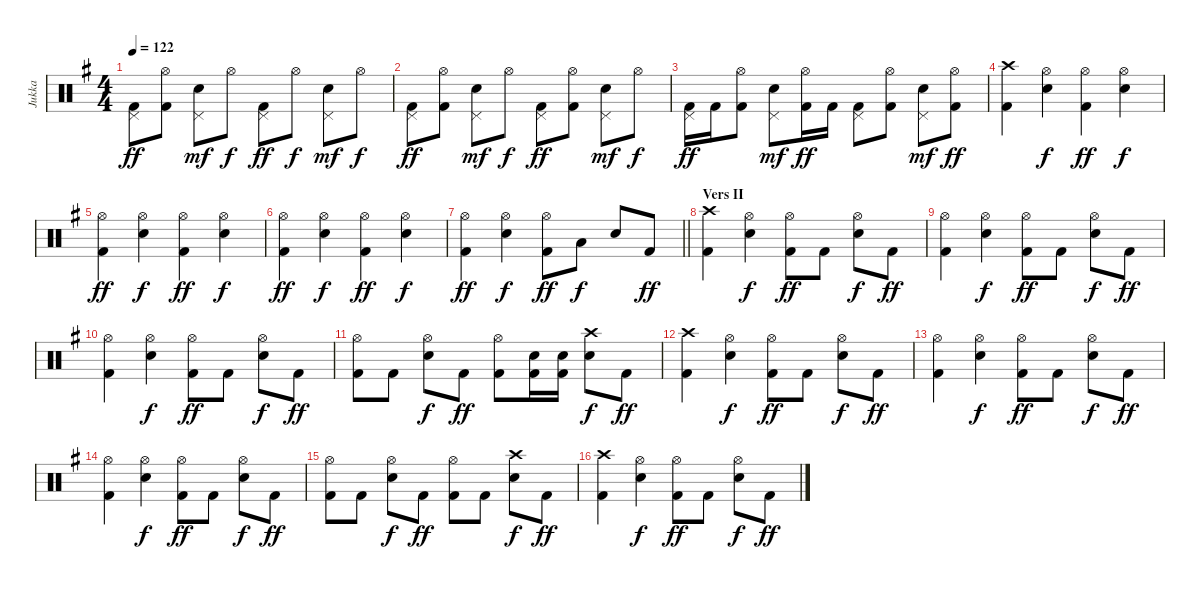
\track ("Jukka" "Jukka") {instrument percussion}
\staff {score}
\articulation defaults
\ts (4 4)
\tempo 122
\clef neutral
\ks g
("Pedal Hi-Hat (hit)" "Kick (hit) 2").8{dy ff} ("Hi-Hat (open)" "Kick (hit) 2").8 ("Pedal Hi-Hat (hit)" "Electric Snare (hit)").8{dy mf} "Hi-Hat (open)".8{dy f} ("Pedal Hi-Hat (hit)" "Kick (hit) 2").8{dy ff} "Hi-Hat (open)".8{dy f} ("Pedal Hi-Hat (hit)" "Electric Snare (hit)").8{dy mf} "Hi-Hat (open)".8{dy f} |
("Pedal Hi-Hat (hit)" "Kick (hit) 2").8{dy ff} ("Hi-Hat (open)" "Kick (hit) 2").8 ("Pedal Hi-Hat (hit)" "Electric Snare (hit)").8{dy mf} "Hi-Hat (open)".8{dy f} ("Pedal Hi-Hat (hit)" "Kick (hit) 2").8{dy ff} ("Hi-Hat (open)" "Kick (hit) 2").8 ("Pedal Hi-Hat (hit)" "Electric Snare (hit)").8{dy mf} "Hi-Hat (open)".8{dy f} |
("Pedal Hi-Hat (hit)" "Kick (hit) 2").16{dy ff} "Kick (hit) 2".16 ("Hi-Hat (open)" "Kick (hit) 2").8 ("Pedal Hi-Hat (hit)" "Electric Snare (hit)").8{dy mf} ("Hi-Hat (open)" "Kick (hit) 2").16{dy ff} "Kick (hit) 2".16 ("Pedal Hi-Hat (hit)" "Kick (hit) 2").8 ("Hi-Hat (open)" "Kick (hit) 2").8 ("Pedal Hi-Hat (hit)" "Electric Snare (hit)").8{dy mf} ("Hi-Hat (open)" "Kick (hit) 2").8{dy ff} |
("Crash high (hit)" "Kick (hit) 2").4 ("Hi-Hat (open)" "Electric Snare (hit)").4{dy f} ("Hi-Hat (open)" "Kick (hit) 2").4{dy ff} ("Hi-Hat (open)" "Electric Snare (hit)").4{dy f} |
("Hi-Hat (open)" "Kick (hit) 2").4{dy ff} ("Hi-Hat (open)" "Electric Snare (hit)").4{dy f} ("Hi-Hat (open)" "Kick (hit) 2").4{dy ff} ("Hi-Hat (open)" "Electric Snare (hit)").4{dy f} |
("Hi-Hat (open)" "Kick (hit) 2").4{dy ff} ("Hi-Hat (open)" "Electric Snare (hit)").4{dy f} ("Hi-Hat (open)" "Kick (hit) 2").4{dy ff} ("Hi-Hat (open)" "Electric Snare (hit)").4{dy f} |
\barLineRight lightlight
("Hi-Hat (open)" "Kick (hit) 2").4{dy ff} ("Hi-Hat (open)" "Electric Snare (hit)").4{dy f} ("Hi-Hat (open)" "Kick (hit) 2").8{dy ff} "Low Floor Tom (hit)".8{dy f} "Electric Snare (hit)".8 "Kick (hit) 2".8{dy ff} |
\section ("" "Vers II")
("Crash high (hit)" "Kick (hit) 2").4 ("Hi-Hat (open)" "Electric Snare (hit)").4{dy f} ("Hi-Hat (open)" "Kick (hit) 2").8{dy ff} "Kick (hit) 2".8 ("Hi-Hat (open)" "Electric Snare (hit)").8{dy f} "Kick (hit) 2".8{dy ff} |
("Hi-Hat (open)" "Kick (hit) 2").4 ("Hi-Hat (open)" "Electric Snare (hit)").4{dy f} ("Hi-Hat (open)" "Kick (hit) 2").8{dy ff} "Kick (hit) 2".8 ("Hi-Hat (open)" "Electric Snare (hit)").8{dy f} "Kick (hit) 2".8{dy ff} |
("Hi-Hat (open)" "Kick (hit) 2").4 ("Hi-Hat (open)" "Electric Snare (hit)").4{dy f} ("Hi-Hat (open)" "Kick (hit) 2").8{dy ff} "Kick (hit) 2".8 ("Hi-Hat (open)" "Electric Snare (hit)").8{dy f} "Kick (hit) 2".8{dy ff} |
("Hi-Hat (open)" "Kick (hit) 2").8 "Kick (hit) 2".8 ("Hi-Hat (open)" "Electric Snare (hit)").8{dy f} "Kick (hit) 2".8{dy ff} ("Hi-Hat (open)" "Kick (hit) 2").8 ("Electric Snare (hit)" "Kick (hit) 2").16 ("Electric Snare (hit)" "Kick (hit) 2").16 ("Crash high (hit)" "Electric Snare (hit)").8{dy f} "Kick (hit) 2".8{dy ff} |
("Crash high (hit)" "Kick (hit) 2").4 ("Hi-Hat (open)" "Electric Snare (hit)").4{dy f} ("Hi-Hat (open)" "Kick (hit) 2").8{dy ff} "Kick (hit) 2".8 ("Hi-Hat (open)" "Electric Snare (hit)").8{dy f} "Kick (hit) 2".8{dy ff} |
("Hi-Hat (open)" "Kick (hit) 2").4 ("Hi-Hat (open)" "Electric Snare (hit)").4{dy f} ("Hi-Hat (open)" "Kick (hit) 2").8{dy ff} "Kick (hit) 2".8 ("Hi-Hat (open)" "Electric Snare (hit)").8{dy f} "Kick (hit) 2".8{dy ff} |
("Hi-Hat (open)" "Kick (hit) 2").4 ("Hi-Hat (open)" "Electric Snare (hit)").4{dy f} ("Hi-Hat (open)" "Kick (hit) 2").8{dy ff} "Kick (hit) 2".8 ("Hi-Hat (open)" "Electric Snare (hit)").8{dy f} "Kick (hit) 2".8{dy ff} |
("Hi-Hat (open)" "Kick (hit) 2").8 "Kick (hit) 2".8 ("Hi-Hat (open)" "Electric Snare (hit)").8{dy f} "Kick (hit) 2".8{dy ff} ("Hi-Hat (open)" "Kick (hit) 2").8 "Kick (hit) 2".8 ("Crash high (hit)" "Electric Snare (hit)").8{dy f} "Kick (hit) 2".8{dy ff} |
("Crash high (hit)" "Kick (hit) 2").4 ("Hi-Hat (open)" "Electric Snare (hit)").4{dy f} ("Hi-Hat (open)" "Kick (hit) 2").8{dy ff} "Kick (hit) 2".8 ("Hi-Hat (open)" "Electric Snare (hit)").8{dy f} "Kick (hit) 2".8{dy ff}
